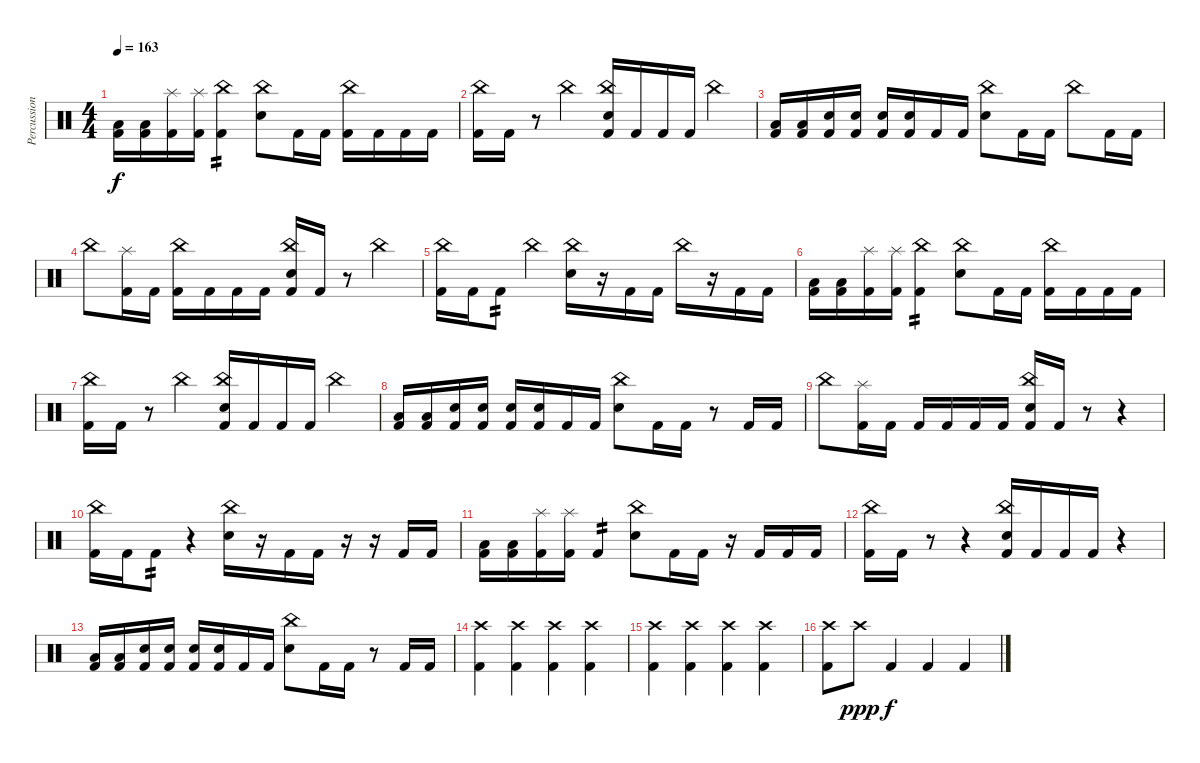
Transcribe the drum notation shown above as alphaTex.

\track ("Percussion" "Percussion") {instrument percussion}
\staff {score}
\articulation defaults
\ts (4 4)
\tempo 163
\clef neutral
\ks c
("Low Tom (hit)" "Kick (hit) 2").16{dy f} ("Low Tom (hit)" "Kick (hit) 2").16 ("Splash (hit)" "Kick (hit) 2").16 ("Splash (hit)" "Kick (hit) 2").16 ("China (hit)" "Kick (hit) 2").4{tp 2} ("China (hit)" "Electric Snare (hit)").8 "Kick (hit) 2".16 "Kick (hit) 2".16 ("China (hit)" "Kick (hit) 2").16 "Kick (hit) 2".16 "Kick (hit) 2".16 "Kick (hit) 2".16 |
("China (hit)" "Kick (hit) 2").16 "Kick (hit) 2".16 r.8 "China (hit)".4 ("China (hit)" "Electric Snare (hit)" "Kick (hit) 2").16 "Kick (hit) 2".16 "Kick (hit) 2".16 "Kick (hit) 2".16 "China (hit)".4 |
("Low Tom (hit)" "Kick (hit) 2").16 ("Low Tom (hit)" "Kick (hit) 2").16 ("Electric Snare (hit)" "Kick (hit) 2").16 ("Electric Snare (hit)" "Kick (hit) 2").16 ("Electric Snare (hit)" "Kick (hit) 2").16 ("Electric Snare (hit)" "Kick (hit) 2").16 "Kick (hit) 2".16 "Kick (hit) 2".16 ("China (hit)" "Electric Snare (hit)").8 "Kick (hit) 2".16 "Kick (hit) 2".16 "China (hit)".8 "Kick (hit) 2".16 "Kick (hit) 2".16 |
"China (hit)".8 ("Splash (hit)" "Kick (hit) 2").16 "Kick (hit) 2".16 ("China (hit)" "Kick (hit) 2").16 "Kick (hit) 2".16 "Kick (hit) 2".16 "Kick (hit) 2".16 ("China (hit)" "Electric Snare (hit)" "Kick (hit) 2").16 "Kick (hit) 2".16 r.8 "China (hit)".4 |
("China (hit)" "Kick (hit) 2").16 "Kick (hit) 2".16 "Kick (hit) 2".8{tp 2} "China (hit)".4 ("China (hit)" "Electric Snare (hit)").16 r.16 "Kick (hit) 2".16 "Kick (hit) 2".16 "China (hit)".16 r.16 "Kick (hit) 2".16 "Kick (hit) 2".16 |
("Low Tom (hit)" "Kick (hit) 2").16 ("Low Tom (hit)" "Kick (hit) 2").16 ("Splash (hit)" "Kick (hit) 2").16 ("Splash (hit)" "Kick (hit) 2").16 ("China (hit)" "Kick (hit) 2").4{tp 2} ("China (hit)" "Electric Snare (hit)").8 "Kick (hit) 2".16 "Kick (hit) 2".16 ("China (hit)" "Kick (hit) 2").16 "Kick (hit) 2".16 "Kick (hit) 2".16 "Kick (hit) 2".16 |
("China (hit)" "Kick (hit) 2").16 "Kick (hit) 2".16 r.8 "China (hit)".4 ("China (hit)" "Electric Snare (hit)" "Kick (hit) 2").16 "Kick (hit) 2".16 "Kick (hit) 2".16 "Kick (hit) 2".16 "China (hit)".4 |
("Low Tom (hit)" "Kick (hit) 2").16 ("Low Tom (hit)" "Kick (hit) 2").16 ("Electric Snare (hit)" "Kick (hit) 2").16 ("Electric Snare (hit)" "Kick (hit) 2").16 ("Electric Snare (hit)" "Kick (hit) 2").16 ("Electric Snare (hit)" "Kick (hit) 2").16 "Kick (hit) 2".16 "Kick (hit) 2".16 ("China (hit)" "Electric Snare (hit)").8 "Kick (hit) 2".16 "Kick (hit) 2".16 r.8 "Kick (hit) 2".16 "Kick (hit) 2".16 |
"China (hit)".8 ("Splash (hit)" "Kick (hit) 2").16 "Kick (hit) 2".16 "Kick (hit) 2".16 "Kick (hit) 2".16 "Kick (hit) 2".16 "Kick (hit) 2".16 ("China (hit)" "Electric Snare (hit)" "Kick (hit) 2").16 "Kick (hit) 2".16 r.8 r.4 |
("China (hit)" "Kick (hit) 2").16 "Kick (hit) 2".16 "Kick (hit) 2".8{tp 2} r.4 ("China (hit)" "Electric Snare (hit)").16 r.16 "Kick (hit) 2".16 "Kick (hit) 2".16 r.16 r.16 "Kick (hit) 2".16 "Kick (hit) 2".16 |
("Low Tom (hit)" "Kick (hit) 2").16 ("Low Tom (hit)" "Kick (hit) 2").16 ("Splash (hit)" "Kick (hit) 2").16 ("Splash (hit)" "Kick (hit) 2").16 "Kick (hit) 2".4{tp 2} ("China (hit)" "Electric Snare (hit)").8 "Kick (hit) 2".16 "Kick (hit) 2".16 r.16 "Kick (hit) 2".16 "Kick (hit) 2".16 "Kick (hit) 2".16 |
("China (hit)" "Kick (hit) 2").16 "Kick (hit) 2".16 r.8 r.4 ("China (hit)" "Electric Snare (hit)" "Kick (hit) 2").16 "Kick (hit) 2".16 "Kick (hit) 2".16 "Kick (hit) 2".16 r.4 |
("Low Tom (hit)" "Kick (hit) 2").16 ("Low Tom (hit)" "Kick (hit) 2").16 ("Electric Snare (hit)" "Kick (hit) 2").16 ("Electric Snare (hit)" "Kick (hit) 2").16 ("Electric Snare (hit)" "Kick (hit) 2").16 ("Electric Snare (hit)" "Kick (hit) 2").16 "Kick (hit) 2".16 "Kick (hit) 2".16 ("China (hit)" "Electric Snare (hit)").8 "Kick (hit) 2".16 "Kick (hit) 2".16 r.8 "Kick (hit) 2".16 "Kick (hit) 2".16 |
("Crash high (hit)" "Kick (hit) 2").4 ("Crash high (hit)" "Kick (hit) 2").4 ("Crash high (hit)" "Kick (hit) 2").4 ("Crash high (hit)" "Kick (hit) 2").4 |
("Crash high (hit)" "Kick (hit) 2").4 ("Crash high (hit)" "Kick (hit) 2").4 ("Crash high (hit)" "Kick (hit) 2").4 ("Crash high (hit)" "Kick (hit) 2").4 |
("Crash high (hit)" "Kick (hit) 2").8 "Crash high (hit)".8{dy ppp} "Kick (hit) 2".4{dy f} "Kick (hit) 2".4 "Kick (hit) 2".4
